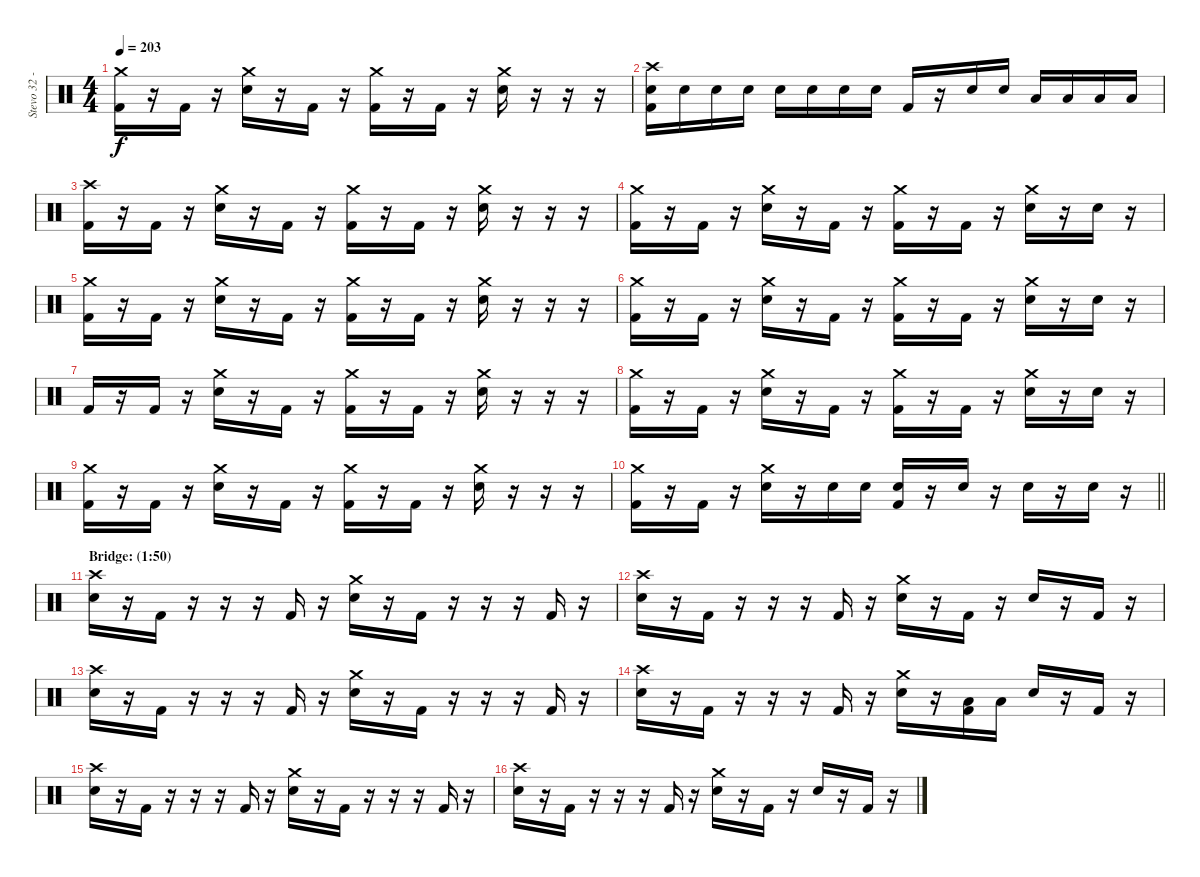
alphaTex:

\track ("Stevo 32 - Drums" "Stevo 32 -") {instrument percussion}
\staff {score}
\articulation defaults
\ts (4 4)
\tempo 203
\clef neutral
\ks c
("Crash medium (hit)" "Kick (hit) 2").16{dy f} r.16 "Kick (hit) 2".16 r.16 ("Crash medium (hit)" "Snare (hit) 2").16 r.16 "Kick (hit) 2".16 r.16 ("Crash medium (hit)" "Kick (hit) 2").16 r.16 "Kick (hit) 2".16 r.16 ("Crash medium (hit)" "Snare (hit) 2").16 r.16 r.16 r.16 |
("Crash high (hit)" "Snare (hit) 2" "Kick (hit) 2").16 "Snare (hit) 2".16 "Snare (hit) 2".16 "Snare (hit) 2".16 "Snare (hit) 2".16 "Snare (hit) 2".16 "Snare (hit) 2".16 "Snare (hit) 2".16 "Kick (hit) 2".16 r.16 "Snare (hit) 2".16 "Snare (hit) 2".16 "Low Floor Tom (hit)".16 "Low Floor Tom (hit)".16 "Low Tom (hit)".16 "Low Tom (hit)".16 |
("Crash high (hit)" "Kick (hit) 2").16 r.16 "Kick (hit) 2".16 r.16 ("Crash medium (hit)" "Snare (hit) 2").16 r.16 "Kick (hit) 2".16 r.16 ("Crash medium (hit)" "Kick (hit) 2").16 r.16 "Kick (hit) 2".16 r.16 ("Crash medium (hit)" "Snare (hit) 2").16 r.16 r.16 r.16 |
("Crash medium (hit)" "Kick (hit) 2").16 r.16 "Kick (hit) 2".16 r.16 ("Crash medium (hit)" "Snare (hit) 2").16 r.16 "Kick (hit) 2".16 r.16 ("Crash medium (hit)" "Kick (hit) 2").16 r.16 "Kick (hit) 2".16 r.16 ("Crash medium (hit)" "Snare (hit) 2").16 r.16 "Snare (hit) 2".16 r.16 |
("Crash medium (hit)" "Kick (hit) 2").16 r.16 "Kick (hit) 2".16 r.16 ("Crash medium (hit)" "Snare (hit) 2").16 r.16 "Kick (hit) 2".16 r.16 ("Crash medium (hit)" "Kick (hit) 2").16 r.16 "Kick (hit) 2".16 r.16 ("Crash medium (hit)" "Snare (hit) 2").16 r.16 r.16 r.16 |
("Crash medium (hit)" "Kick (hit) 2").16 r.16 "Kick (hit) 2".16 r.16 ("Crash medium (hit)" "Snare (hit) 2").16 r.16 "Kick (hit) 2".16 r.16 ("Crash medium (hit)" "Kick (hit) 2").16 r.16 "Kick (hit) 2".16 r.16 ("Crash medium (hit)" "Snare (hit) 2").16 r.16 "Snare (hit) 2".16 r.16 |
"Kick (hit) 2".16 r.16 "Kick (hit) 2".16 r.16 ("Crash medium (hit)" "Snare (hit) 2").16 r.16 "Kick (hit) 2".16 r.16 ("Crash medium (hit)" "Kick (hit) 2").16 r.16 "Kick (hit) 2".16 r.16 ("Crash medium (hit)" "Snare (hit) 2").16 r.16 r.16 r.16 |
("Crash medium (hit)" "Kick (hit) 2").16 r.16 "Kick (hit) 2".16 r.16 ("Crash medium (hit)" "Snare (hit) 2").16 r.16 "Kick (hit) 2".16 r.16 ("Crash medium (hit)" "Kick (hit) 2").16 r.16 "Kick (hit) 2".16 r.16 ("Crash medium (hit)" "Snare (hit) 2").16 r.16 "Snare (hit) 2".16 r.16 |
("Crash medium (hit)" "Kick (hit) 2").16 r.16 "Kick (hit) 2".16 r.16 ("Crash medium (hit)" "Snare (hit) 2").16 r.16 "Kick (hit) 2".16 r.16 ("Crash medium (hit)" "Kick (hit) 2").16 r.16 "Kick (hit) 2".16 r.16 ("Crash medium (hit)" "Snare (hit) 2").16 r.16 r.16 r.16 |
\barLineRight lightlight
("Crash medium (hit)" "Kick (hit) 2").16 r.16 "Kick (hit) 2".16 r.16 ("Crash medium (hit)" "Snare (hit) 2").16 r.16 "Snare (hit) 2".16 "Snare (hit) 2".16 ("Snare (hit) 2" "Kick (hit) 2").16 r.16 "Snare (hit) 2".16 r.16 "Snare (hit) 2".16 r.16 "Snare (hit) 2".16 r.16 |
\section ("" "Bridge: (1:50)")
("Crash high (hit)" "Snare (hit) 2").16 r.16 "Kick (hit) 2".16 r.16 r.16 r.16 "Kick (hit) 2".16 r.16 ("Crash medium (hit)" "Snare (hit) 2").16 r.16 "Kick (hit) 2".16 r.16 r.16 r.16 "Kick (hit) 2".16 r.16 |
("Crash high (hit)" "Snare (hit) 2").16 r.16 "Kick (hit) 2".16 r.16 r.16 r.16 "Kick (hit) 2".16 r.16 ("Crash medium (hit)" "Snare (hit) 2").16 r.16 "Kick (hit) 2".16 r.16 "Snare (hit) 2".16 r.16 "Kick (hit) 2".16 r.16 |
("Crash high (hit)" "Snare (hit) 2").16 r.16 "Kick (hit) 2".16 r.16 r.16 r.16 "Kick (hit) 2".16 r.16 ("Crash medium (hit)" "Snare (hit) 2").16 r.16 "Kick (hit) 2".16 r.16 r.16 r.16 "Kick (hit) 2".16 r.16 |
("Crash high (hit)" "Snare (hit) 2").16 r.16 "Kick (hit) 2".16 r.16 r.16 r.16 "Kick (hit) 2".16 r.16 ("Crash medium (hit)" "Snare (hit) 2").16 r.16 ("Low Tom (hit)" "Kick (hit) 2").16 "Low Tom (hit)".16 "Snare (hit) 2".16 r.16 "Kick (hit) 2".16 r.16 |
("Crash high (hit)" "Snare (hit) 2").16 r.16 "Kick (hit) 2".16 r.16 r.16 r.16 "Kick (hit) 2".16 r.16 ("Crash medium (hit)" "Snare (hit) 2").16 r.16 "Kick (hit) 2".16 r.16 r.16 r.16 "Kick (hit) 2".16 r.16 |
("Crash high (hit)" "Snare (hit) 2").16 r.16 "Kick (hit) 2".16 r.16 r.16 r.16 "Kick (hit) 2".16 r.16 ("Crash medium (hit)" "Snare (hit) 2").16 r.16 "Kick (hit) 2".16 r.16 "Snare (hit) 2".16 r.16 "Kick (hit) 2".16 r.16
